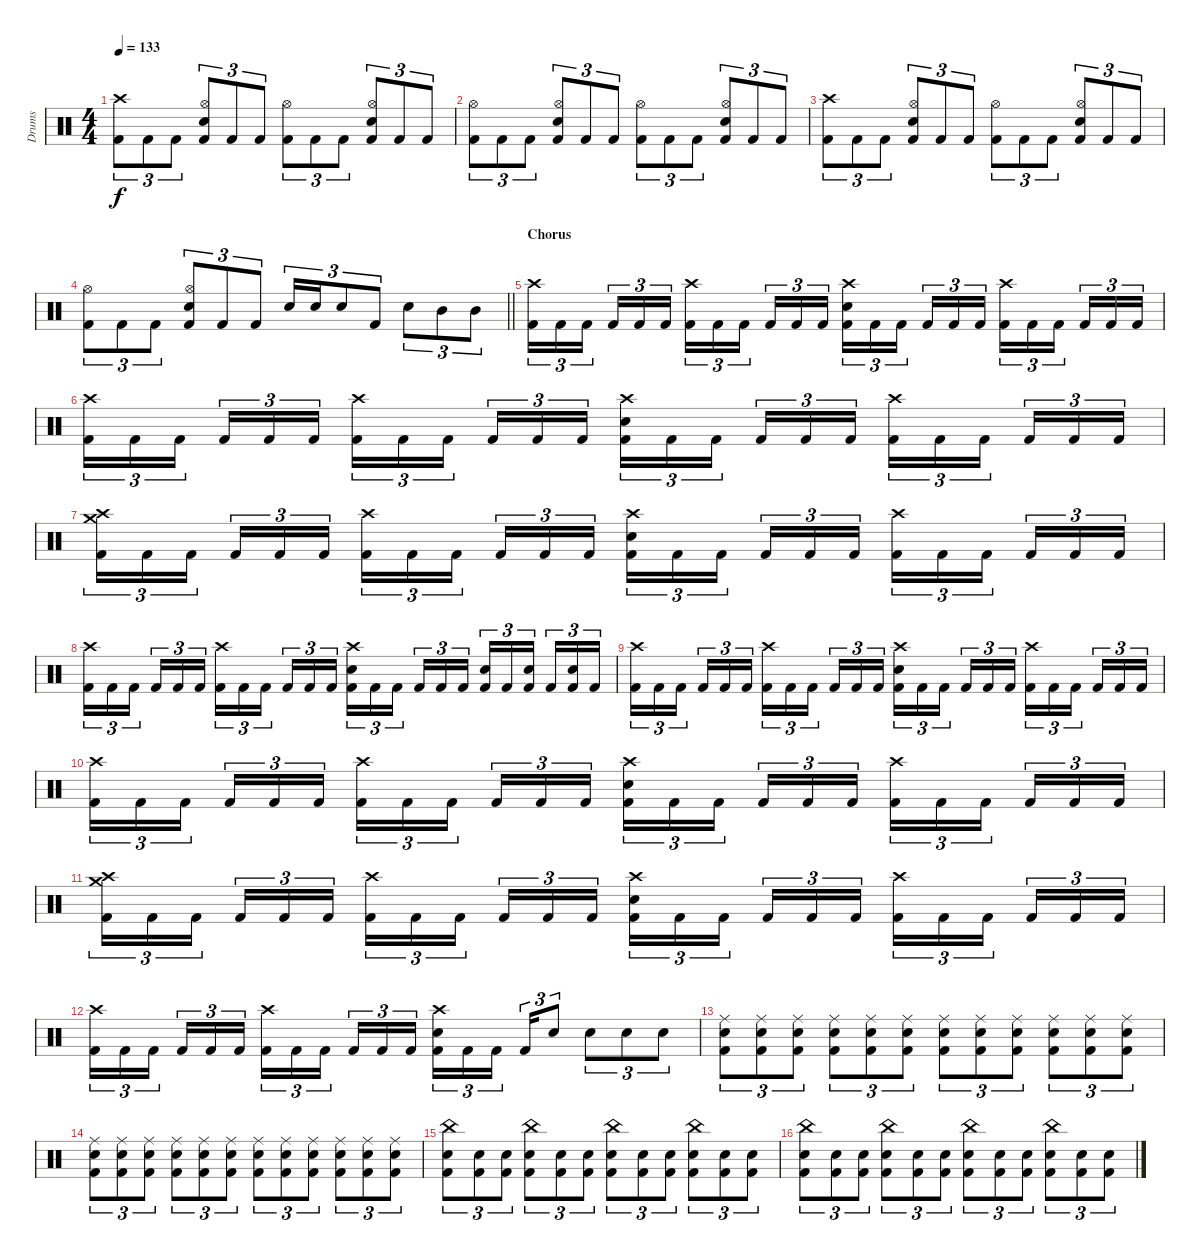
\track ("Drums" "Drums") {instrument percussion}
\staff {score}
\articulation defaults
\ts (4 4)
\tempo 133
\clef neutral
\ks c
("Crash high (hit)" "Kick (hit) 2").8{tu (3 2) dy f} "Kick (hit) 2".8{tu (3 2)} "Kick (hit) 2".8{tu (3 2)} ("Hi-Hat (open)" "Snare (hit) 2" "Kick (hit) 2").8{tu (3 2)} "Kick (hit) 2".8{tu (3 2)} "Kick (hit) 2".8{tu (3 2)} ("Hi-Hat (open)" "Kick (hit) 2").8{tu (3 2)} "Kick (hit) 2".8{tu (3 2)} "Kick (hit) 2".8{tu (3 2)} ("Hi-Hat (open)" "Snare (hit) 2" "Kick (hit) 2").8{tu (3 2)} "Kick (hit) 2".8{tu (3 2)} "Kick (hit) 2".8{tu (3 2)} |
("Hi-Hat (open)" "Kick (hit) 2").8{tu (3 2)} "Kick (hit) 2".8{tu (3 2)} "Kick (hit) 2".8{tu (3 2)} ("Hi-Hat (open)" "Snare (hit) 2" "Kick (hit) 2").8{tu (3 2)} "Kick (hit) 2".8{tu (3 2)} "Kick (hit) 2".8{tu (3 2)} ("Hi-Hat (open)" "Kick (hit) 2").8{tu (3 2)} "Kick (hit) 2".8{tu (3 2)} "Kick (hit) 2".8{tu (3 2)} ("Hi-Hat (open)" "Snare (hit) 2" "Kick (hit) 2").8{tu (3 2)} "Kick (hit) 2".8{tu (3 2)} "Kick (hit) 2".8{tu (3 2)} |
("Crash high (hit)" "Kick (hit) 2").8{tu (3 2)} "Kick (hit) 2".8{tu (3 2)} "Kick (hit) 2".8{tu (3 2)} ("Hi-Hat (open)" "Snare (hit) 2" "Kick (hit) 2").8{tu (3 2)} "Kick (hit) 2".8{tu (3 2)} "Kick (hit) 2".8{tu (3 2)} ("Hi-Hat (open)" "Kick (hit) 2").8{tu (3 2)} "Kick (hit) 2".8{tu (3 2)} "Kick (hit) 2".8{tu (3 2)} ("Hi-Hat (open)" "Snare (hit) 2" "Kick (hit) 2").8{tu (3 2)} "Kick (hit) 2".8{tu (3 2)} "Kick (hit) 2".8{tu (3 2)} |
\barLineRight lightlight
("Hi-Hat (open)" "Kick (hit) 2").8{tu (3 2)} "Kick (hit) 2".8{tu (3 2)} "Kick (hit) 2".8{tu (3 2)} ("Hi-Hat (open)" "Snare (hit) 2" "Kick (hit) 2").8{tu (3 2)} "Kick (hit) 2".8{tu (3 2)} "Kick (hit) 2".8{tu (3 2)} "Snare (hit) 2".16{tu (3 2)} "Snare (hit) 2".16{tu (3 2)} "Snare (hit) 2".8{tu (3 2)} "Kick (hit) 2".8{tu (3 2)} "Snare (hit) 2".8{tu (3 2)} "Mid Tom (hit)".8{tu (3 2)} "Mid Tom (hit)".8{tu (3 2)} |
\section ("" "Chorus")
("Crash high (hit)" "Kick (hit) 2").16{tu (3 2)} "Kick (hit) 2".16{tu (3 2)} "Kick (hit) 2".16{tu (3 2) beam splitsecondary} "Kick (hit) 2".16{tu (3 2)} "Kick (hit) 2".16{tu (3 2)} "Kick (hit) 2".16{tu (3 2)} ("Crash high (hit)" "Kick (hit) 2").16{tu (3 2)} "Kick (hit) 2".16{tu (3 2)} "Kick (hit) 2".16{tu (3 2) beam splitsecondary} "Kick (hit) 2".16{tu (3 2)} "Kick (hit) 2".16{tu (3 2)} "Kick (hit) 2".16{tu (3 2)} ("Crash high (hit)" "Snare (hit) 2" "Kick (hit) 2").16{tu (3 2)} "Kick (hit) 2".16{tu (3 2)} "Kick (hit) 2".16{tu (3 2) beam splitsecondary} "Kick (hit) 2".16{tu (3 2)} "Kick (hit) 2".16{tu (3 2)} "Kick (hit) 2".16{tu (3 2)} ("Crash high (hit)" "Kick (hit) 2").16{tu (3 2)} "Kick (hit) 2".16{tu (3 2)} "Kick (hit) 2".16{tu (3 2) beam splitsecondary} "Kick (hit) 2".16{tu (3 2)} "Kick (hit) 2".16{tu (3 2)} "Kick (hit) 2".16{tu (3 2)} |
("Crash high (hit)" "Kick (hit) 2").16{tu (3 2)} "Kick (hit) 2".16{tu (3 2)} "Kick (hit) 2".16{tu (3 2) beam splitsecondary} "Kick (hit) 2".16{tu (3 2)} "Kick (hit) 2".16{tu (3 2)} "Kick (hit) 2".16{tu (3 2)} ("Crash high (hit)" "Kick (hit) 2").16{tu (3 2)} "Kick (hit) 2".16{tu (3 2)} "Kick (hit) 2".16{tu (3 2) beam splitsecondary} "Kick (hit) 2".16{tu (3 2)} "Kick (hit) 2".16{tu (3 2)} "Kick (hit) 2".16{tu (3 2)} ("Crash high (hit)" "Snare (hit) 2" "Kick (hit) 2").16{tu (3 2)} "Kick (hit) 2".16{tu (3 2)} "Kick (hit) 2".16{tu (3 2) beam splitsecondary} "Kick (hit) 2".16{tu (3 2)} "Kick (hit) 2".16{tu (3 2)} "Kick (hit) 2".16{tu (3 2)} ("Crash high (hit)" "Kick (hit) 2").16{tu (3 2)} "Kick (hit) 2".16{tu (3 2)} "Kick (hit) 2".16{tu (3 2) beam splitsecondary} "Kick (hit) 2".16{tu (3 2)} "Kick (hit) 2".16{tu (3 2)} "Kick (hit) 2".16{tu (3 2)} |
("Crash high (hit)" "Crash medium (hit)" "Kick (hit) 2").16{tu (3 2)} "Kick (hit) 2".16{tu (3 2)} "Kick (hit) 2".16{tu (3 2) beam splitsecondary} "Kick (hit) 2".16{tu (3 2)} "Kick (hit) 2".16{tu (3 2)} "Kick (hit) 2".16{tu (3 2)} ("Crash high (hit)" "Kick (hit) 2").16{tu (3 2)} "Kick (hit) 2".16{tu (3 2)} "Kick (hit) 2".16{tu (3 2) beam splitsecondary} "Kick (hit) 2".16{tu (3 2)} "Kick (hit) 2".16{tu (3 2)} "Kick (hit) 2".16{tu (3 2)} ("Crash high (hit)" "Snare (hit) 2" "Kick (hit) 2").16{tu (3 2)} "Kick (hit) 2".16{tu (3 2)} "Kick (hit) 2".16{tu (3 2) beam splitsecondary} "Kick (hit) 2".16{tu (3 2)} "Kick (hit) 2".16{tu (3 2)} "Kick (hit) 2".16{tu (3 2)} ("Crash high (hit)" "Kick (hit) 2").16{tu (3 2)} "Kick (hit) 2".16{tu (3 2)} "Kick (hit) 2".16{tu (3 2) beam splitsecondary} "Kick (hit) 2".16{tu (3 2)} "Kick (hit) 2".16{tu (3 2)} "Kick (hit) 2".16{tu (3 2)} |
("Crash high (hit)" "Kick (hit) 2").16{tu (3 2)} "Kick (hit) 2".16{tu (3 2)} "Kick (hit) 2".16{tu (3 2) beam splitsecondary} "Kick (hit) 2".16{tu (3 2)} "Kick (hit) 2".16{tu (3 2)} "Kick (hit) 2".16{tu (3 2)} ("Crash high (hit)" "Kick (hit) 2").16{tu (3 2)} "Kick (hit) 2".16{tu (3 2)} "Kick (hit) 2".16{tu (3 2) beam splitsecondary} "Kick (hit) 2".16{tu (3 2)} "Kick (hit) 2".16{tu (3 2)} "Kick (hit) 2".16{tu (3 2)} ("Crash high (hit)" "Snare (hit) 2" "Kick (hit) 2").16{tu (3 2)} "Kick (hit) 2".16{tu (3 2)} "Kick (hit) 2".16{tu (3 2) beam splitsecondary} "Kick (hit) 2".16{tu (3 2)} "Kick (hit) 2".16{tu (3 2)} "Kick (hit) 2".16{tu (3 2)} ("Snare (hit) 2" "Kick (hit) 2").16{tu (3 2)} "Kick (hit) 2".16{tu (3 2)} ("Snare (hit) 2" "Kick (hit) 2").16{tu (3 2) beam splitsecondary} "Kick (hit) 2".16{tu (3 2)} ("Snare (hit) 2" "Kick (hit) 2").16{tu (3 2)} "Kick (hit) 2".16{tu (3 2)} |
("Crash high (hit)" "Kick (hit) 2").16{tu (3 2)} "Kick (hit) 2".16{tu (3 2)} "Kick (hit) 2".16{tu (3 2) beam splitsecondary} "Kick (hit) 2".16{tu (3 2)} "Kick (hit) 2".16{tu (3 2)} "Kick (hit) 2".16{tu (3 2)} ("Crash high (hit)" "Kick (hit) 2").16{tu (3 2)} "Kick (hit) 2".16{tu (3 2)} "Kick (hit) 2".16{tu (3 2) beam splitsecondary} "Kick (hit) 2".16{tu (3 2)} "Kick (hit) 2".16{tu (3 2)} "Kick (hit) 2".16{tu (3 2)} ("Crash high (hit)" "Snare (hit) 2" "Kick (hit) 2").16{tu (3 2)} "Kick (hit) 2".16{tu (3 2)} "Kick (hit) 2".16{tu (3 2) beam splitsecondary} "Kick (hit) 2".16{tu (3 2)} "Kick (hit) 2".16{tu (3 2)} "Kick (hit) 2".16{tu (3 2)} ("Crash high (hit)" "Kick (hit) 2").16{tu (3 2)} "Kick (hit) 2".16{tu (3 2)} "Kick (hit) 2".16{tu (3 2) beam splitsecondary} "Kick (hit) 2".16{tu (3 2)} "Kick (hit) 2".16{tu (3 2)} "Kick (hit) 2".16{tu (3 2)} |
("Crash high (hit)" "Kick (hit) 2").16{tu (3 2)} "Kick (hit) 2".16{tu (3 2)} "Kick (hit) 2".16{tu (3 2) beam splitsecondary} "Kick (hit) 2".16{tu (3 2)} "Kick (hit) 2".16{tu (3 2)} "Kick (hit) 2".16{tu (3 2)} ("Crash high (hit)" "Kick (hit) 2").16{tu (3 2)} "Kick (hit) 2".16{tu (3 2)} "Kick (hit) 2".16{tu (3 2) beam splitsecondary} "Kick (hit) 2".16{tu (3 2)} "Kick (hit) 2".16{tu (3 2)} "Kick (hit) 2".16{tu (3 2)} ("Crash high (hit)" "Snare (hit) 2" "Kick (hit) 2").16{tu (3 2)} "Kick (hit) 2".16{tu (3 2)} "Kick (hit) 2".16{tu (3 2) beam splitsecondary} "Kick (hit) 2".16{tu (3 2)} "Kick (hit) 2".16{tu (3 2)} "Kick (hit) 2".16{tu (3 2)} ("Crash high (hit)" "Kick (hit) 2").16{tu (3 2)} "Kick (hit) 2".16{tu (3 2)} "Kick (hit) 2".16{tu (3 2) beam splitsecondary} "Kick (hit) 2".16{tu (3 2)} "Kick (hit) 2".16{tu (3 2)} "Kick (hit) 2".16{tu (3 2)} |
("Crash high (hit)" "Crash medium (hit)" "Kick (hit) 2").16{tu (3 2)} "Kick (hit) 2".16{tu (3 2)} "Kick (hit) 2".16{tu (3 2) beam splitsecondary} "Kick (hit) 2".16{tu (3 2)} "Kick (hit) 2".16{tu (3 2)} "Kick (hit) 2".16{tu (3 2)} ("Crash high (hit)" "Kick (hit) 2").16{tu (3 2)} "Kick (hit) 2".16{tu (3 2)} "Kick (hit) 2".16{tu (3 2) beam splitsecondary} "Kick (hit) 2".16{tu (3 2)} "Kick (hit) 2".16{tu (3 2)} "Kick (hit) 2".16{tu (3 2)} ("Crash high (hit)" "Snare (hit) 2" "Kick (hit) 2").16{tu (3 2)} "Kick (hit) 2".16{tu (3 2)} "Kick (hit) 2".16{tu (3 2) beam splitsecondary} "Kick (hit) 2".16{tu (3 2)} "Kick (hit) 2".16{tu (3 2)} "Kick (hit) 2".16{tu (3 2)} ("Crash high (hit)" "Kick (hit) 2").16{tu (3 2)} "Kick (hit) 2".16{tu (3 2)} "Kick (hit) 2".16{tu (3 2) beam splitsecondary} "Kick (hit) 2".16{tu (3 2)} "Kick (hit) 2".16{tu (3 2)} "Kick (hit) 2".16{tu (3 2)} |
("Crash high (hit)" "Kick (hit) 2").16{tu (3 2)} "Kick (hit) 2".16{tu (3 2)} "Kick (hit) 2".16{tu (3 2) beam splitsecondary} "Kick (hit) 2".16{tu (3 2)} "Kick (hit) 2".16{tu (3 2)} "Kick (hit) 2".16{tu (3 2)} ("Crash high (hit)" "Kick (hit) 2").16{tu (3 2)} "Kick (hit) 2".16{tu (3 2)} "Kick (hit) 2".16{tu (3 2) beam splitsecondary} "Kick (hit) 2".16{tu (3 2)} "Kick (hit) 2".16{tu (3 2)} "Kick (hit) 2".16{tu (3 2)} ("Crash high (hit)" "Snare (hit) 2" "Kick (hit) 2").16{tu (3 2)} "Kick (hit) 2".16{tu (3 2)} "Kick (hit) 2".16{tu (3 2) beam splitsecondary} "Kick (hit) 2".16{tu (3 2)} "Snare (hit) 2".8{tu (3 2)} "Snare (hit) 2".8{tu (3 2)} "Snare (hit) 2".8{tu (3 2)} "Snare (hit) 2".8{tu (3 2)} |
("Ride (middle)" "Snare (hit) 2" "Kick (hit) 2").8{tu (3 2)} ("Ride (middle)" "Snare (hit) 2" "Kick (hit) 2").8{tu (3 2)} ("Ride (middle)" "Snare (hit) 2" "Kick (hit) 2").8{tu (3 2)} ("Ride (middle)" "Snare (hit) 2" "Kick (hit) 2").8{tu (3 2)} ("Ride (middle)" "Snare (hit) 2" "Kick (hit) 2").8{tu (3 2)} ("Ride (middle)" "Snare (hit) 2" "Kick (hit) 2").8{tu (3 2)} ("Ride (middle)" "Snare (hit) 2" "Kick (hit) 2").8{tu (3 2)} ("Ride (middle)" "Snare (hit) 2" "Kick (hit) 2").8{tu (3 2)} ("Ride (middle)" "Snare (hit) 2" "Kick (hit) 2").8{tu (3 2)} ("Ride (middle)" "Snare (hit) 2" "Kick (hit) 2").8{tu (3 2)} ("Ride (middle)" "Snare (hit) 2" "Kick (hit) 2").8{tu (3 2)} ("Ride (middle)" "Snare (hit) 2" "Kick (hit) 2").8{tu (3 2)} |
("Ride (middle)" "Snare (hit) 2" "Kick (hit) 2").8{tu (3 2)} ("Ride (middle)" "Snare (hit) 2" "Kick (hit) 2").8{tu (3 2)} ("Ride (middle)" "Snare (hit) 2" "Kick (hit) 2").8{tu (3 2)} ("Ride (middle)" "Snare (hit) 2" "Kick (hit) 2").8{tu (3 2)} ("Ride (middle)" "Snare (hit) 2" "Kick (hit) 2").8{tu (3 2)} ("Ride (middle)" "Snare (hit) 2" "Kick (hit) 2").8{tu (3 2)} ("Ride (middle)" "Snare (hit) 2" "Kick (hit) 2").8{tu (3 2)} ("Ride (middle)" "Snare (hit) 2" "Kick (hit) 2").8{tu (3 2)} ("Ride (middle)" "Snare (hit) 2" "Kick (hit) 2").8{tu (3 2)} ("Ride (middle)" "Snare (hit) 2" "Kick (hit) 2").8{tu (3 2)} ("Ride (middle)" "Snare (hit) 2" "Kick (hit) 2").8{tu (3 2)} ("Ride (middle)" "Snare (hit) 2" "Kick (hit) 2").8{tu (3 2)} |
("China (hit)" "Snare (hit) 2" "Kick (hit) 2").8{tu (3 2)} ("Snare (hit) 2" "Kick (hit) 2").8{tu (3 2)} ("Snare (hit) 2" "Kick (hit) 2").8{tu (3 2)} ("China (hit)" "Snare (hit) 2" "Kick (hit) 2").8{tu (3 2)} ("Snare (hit) 2" "Kick (hit) 2").8{tu (3 2)} ("Snare (hit) 2" "Kick (hit) 2").8{tu (3 2)} ("China (hit)" "Snare (hit) 2" "Kick (hit) 2").8{tu (3 2)} ("Snare (hit) 2" "Kick (hit) 2").8{tu (3 2)} ("Snare (hit) 2" "Kick (hit) 2").8{tu (3 2)} ("China (hit)" "Snare (hit) 2" "Kick (hit) 2").8{tu (3 2)} ("Snare (hit) 2" "Kick (hit) 2").8{tu (3 2)} ("Snare (hit) 2" "Kick (hit) 2").8{tu (3 2)} |
("China (hit)" "Snare (hit) 2" "Kick (hit) 2").8{tu (3 2)} ("Snare (hit) 2" "Kick (hit) 2").8{tu (3 2)} ("Snare (hit) 2" "Kick (hit) 2").8{tu (3 2)} ("China (hit)" "Snare (hit) 2" "Kick (hit) 2").8{tu (3 2)} ("Snare (hit) 2" "Kick (hit) 2").8{tu (3 2)} ("Snare (hit) 2" "Kick (hit) 2").8{tu (3 2)} ("China (hit)" "Snare (hit) 2" "Kick (hit) 2").8{tu (3 2)} ("Snare (hit) 2" "Kick (hit) 2").8{tu (3 2)} ("Snare (hit) 2" "Kick (hit) 2").8{tu (3 2)} ("China (hit)" "Snare (hit) 2" "Kick (hit) 2").8{tu (3 2)} ("Snare (hit) 2" "Kick (hit) 2").8{tu (3 2)} ("Snare (hit) 2" "Kick (hit) 2").8{tu (3 2)}
